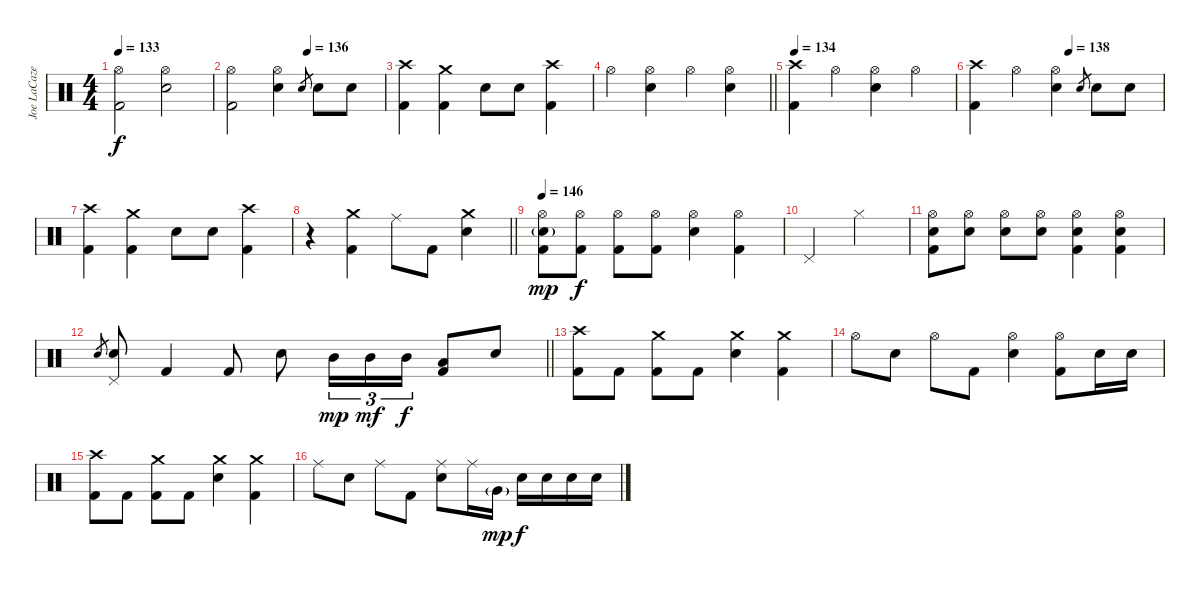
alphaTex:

\track ("Joe LaCaze" "Joe LaCaze") {instrument percussion}
\staff {score}
\articulation defaults
\ts (4 4)
\section ("" "")
\tempo 133
\clef neutral
\ks c
("Hi-Hat (open)" "Kick (hit) 2").2{dy f} ("Hi-Hat (open)" "Electric Snare (hit)").2 |
\tempo (136 0.5)
("Hi-Hat (open)" "Kick (hit) 2").2 ("Hi-Hat (open)" "Electric Snare (hit)").4 "Electric Snare (hit)".8{gr} "Electric Snare (hit)".8 "Electric Snare (hit)".8 |
("Crash high (hit)" "Kick (hit) 2").4 ("Crash medium (hit)" "Kick (hit) 2").4 "Electric Snare (hit)".8 "Electric Snare (hit)".8 ("Crash high (hit)" "Kick (hit) 2").4 |
\barLineRight lightlight "Hi-Hat (open)".4
("Hi-Hat (open)" "Electric Snare (hit)").4 "Hi-Hat (open)".4 ("Hi-Hat (open)" "Electric Snare (hit)").4 |
\tempo 134
("Crash high (hit)" "Kick (hit) 2").4 "Hi-Hat (open)".4 ("Hi-Hat (open)" "Electric Snare (hit)").4 "Hi-Hat (open)".4 |
\tempo (138 0.5)
("Crash high (hit)" "Kick (hit) 2").4 "Hi-Hat (open)".4 ("Hi-Hat (open)" "Electric Snare (hit)").4 "Electric Snare (hit)".8{gr} "Electric Snare (hit)".8 "Electric Snare (hit)".8 |
("Crash high (hit)" "Kick (hit) 2").4 ("Crash medium (hit)" "Kick (hit) 2").4 "Electric Snare (hit)".8 "Electric Snare (hit)".8 ("Crash high (hit)" "Kick (hit) 2").4 |
\barLineRight lightlight
r.4 ("Crash medium (hit)" "Kick (hit) 2").4 "Ride (middle)".8 "Kick (hit) 2".8 ("Crash medium (hit)" "Electric Snare (hit)").4 |
\section ("" "")
\tempo 146
("Hi-Hat (open)" "Electric Snare (hit)"{g} "Kick (hit) 2").8{dy mp} ("Hi-Hat (open)" "Kick (hit) 2").8{dy f} ("Hi-Hat (open)" "Kick (hit) 2").8 ("Hi-Hat (open)" "Kick (hit) 2").8 ("Hi-Hat (open)" "Electric Snare (hit)").4 ("Hi-Hat (open)" "Kick (hit) 2").4 |
"Pedal Hi-Hat (hit)".2 "Hi-Hat (closed)".2 |
("Hi-Hat (open)" "Electric Snare (hit)" "Kick (hit) 2").8 ("Hi-Hat (open)" "Electric Snare (hit)").8 ("Hi-Hat (open)" "Electric Snare (hit)").8 ("Hi-Hat (open)" "Electric Snare (hit)").8 ("Hi-Hat (open)" "Electric Snare (hit)" "Kick (hit) 2").4 ("Hi-Hat (open)" "Electric Snare (hit)" "Kick (hit) 2").4 |
\barLineRight lightlight "Electric Snare (hit)".8{gr}
("Pedal Hi-Hat (hit)" "Electric Snare (hit)").8 "Kick (hit) 2".4 "Kick (hit) 2".8 "Electric Snare (hit)".8 "Mid Tom (hit)".16{tu (3 2) dy mp} "Mid Tom (hit)".16{tu (3 2) dy mf} "Mid Tom (hit)".16{tu (3 2) dy f} ("Low Tom (hit)" "Kick (hit) 2").8 "Electric Snare (hit)".8 |
\section ("" "")
("Crash high (hit)" "Kick (hit) 2").8 "Kick (hit) 2".8 ("Crash medium (hit)" "Kick (hit) 2").8 "Kick (hit) 2".8 ("Crash medium (hit)" "Electric Snare (hit)").4 ("Crash medium (hit)" "Kick (hit) 2").4 |
"Hi-Hat (open)".8 "Electric Snare (hit)".8 "Hi-Hat (open)".8 "Kick (hit) 2".8 ("Hi-Hat (open)" "Electric Snare (hit)").4 ("Hi-Hat (open)" "Kick (hit) 2").8 "Electric Snare (hit)".16 "Electric Snare (hit)".16 |
("Crash high (hit)" "Kick (hit) 2").8 "Kick (hit) 2".8 ("Crash medium (hit)" "Kick (hit) 2").8 "Kick (hit) 2".8 ("Crash medium (hit)" "Electric Snare (hit)").4 ("Crash medium (hit)" "Kick (hit) 2").4 |
"Ride (middle)".8 "Electric Snare (hit)".8 "Ride (middle)".8 "Kick (hit) 2".8 ("Ride (middle)" "Electric Snare (hit)").8 "Ride (middle)".16 "Very Low Tom (hit)"{g}.16{dy mp} "Electric Snare (hit)".16{dy f} "Electric Snare (hit)".16 "Electric Snare (hit)".16 "Electric Snare (hit)".16
